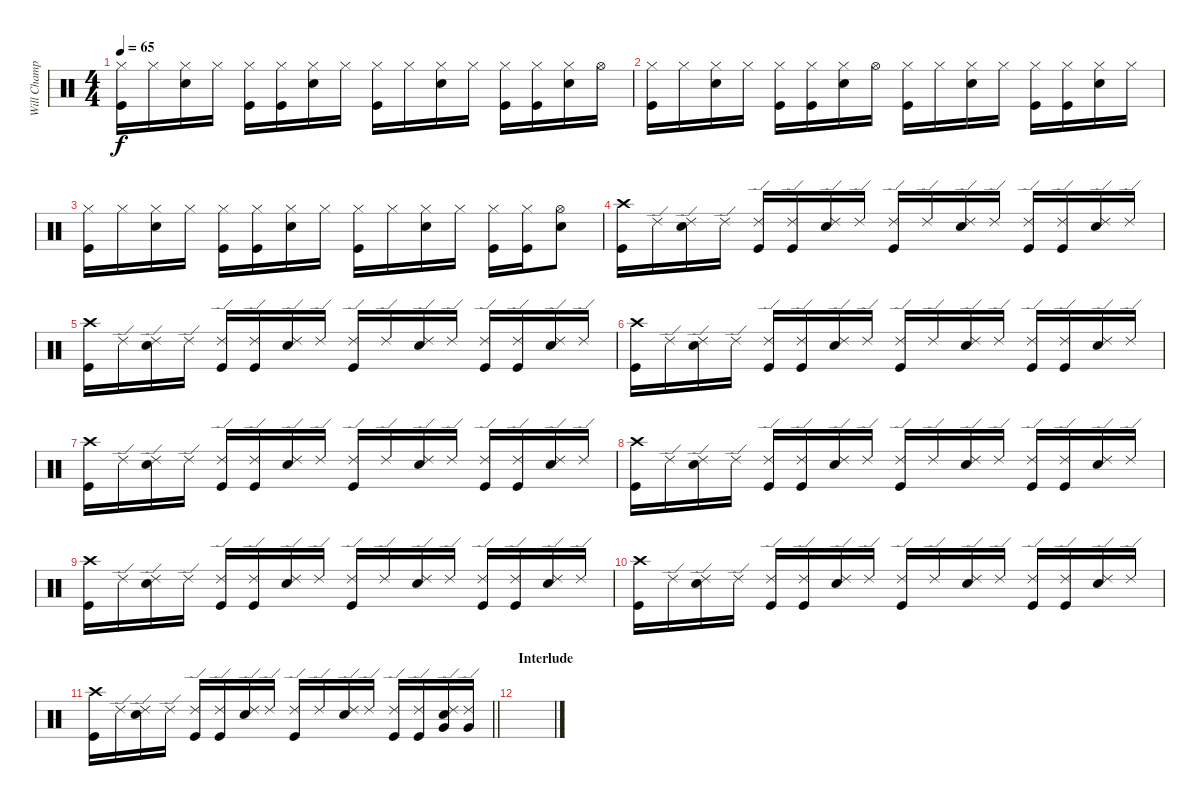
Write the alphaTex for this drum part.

\track ("Will Champion-Drums" "Will Champ") {instrument percussion}
\staff {score}
\articulation defaults
\ts (4 4)
\tempo 65
\clef neutral
\ks c
("Hi-Hat (closed)" "Kick (hit)").16{dy f} "Hi-Hat (closed)".16 ("Hi-Hat (closed)" "Snare (hit) 2").16 "Hi-Hat (closed)".16 ("Hi-Hat (closed)" "Kick (hit)").16 ("Hi-Hat (closed)" "Kick (hit)").16 ("Hi-Hat (closed)" "Snare (hit) 2").16 "Hi-Hat (closed)".16 ("Hi-Hat (closed)" "Kick (hit)").16 "Hi-Hat (closed)".16 ("Hi-Hat (closed)" "Snare (hit) 2").16 "Hi-Hat (closed)".16 ("Hi-Hat (closed)" "Kick (hit)").16 ("Hi-Hat (closed)" "Kick (hit)").16 ("Hi-Hat (closed)" "Snare (hit) 2").16 "Hi-Hat (open)".16 |
("Hi-Hat (closed)" "Kick (hit)").16 "Hi-Hat (closed)".16 ("Hi-Hat (closed)" "Snare (hit) 2").16 "Hi-Hat (closed)".16 ("Hi-Hat (closed)" "Kick (hit)").16 ("Hi-Hat (closed)" "Kick (hit)").16 ("Hi-Hat (closed)" "Snare (hit) 2").16 "Hi-Hat (open)".16 ("Hi-Hat (closed)" "Kick (hit)").16 "Hi-Hat (closed)".16 ("Hi-Hat (closed)" "Snare (hit) 2").16 "Hi-Hat (closed)".16 ("Hi-Hat (closed)" "Kick (hit)").16 ("Hi-Hat (closed)" "Kick (hit)").16 ("Hi-Hat (closed)" "Snare (hit) 2").16 "Hi-Hat (closed)".16 |
("Hi-Hat (closed)" "Kick (hit)").16 "Hi-Hat (closed)".16 ("Hi-Hat (closed)" "Snare (hit) 2").16 "Hi-Hat (closed)".16 ("Hi-Hat (closed)" "Kick (hit)").16 ("Hi-Hat (closed)" "Kick (hit)").16 ("Hi-Hat (closed)" "Snare (hit) 2").16 "Hi-Hat (closed)".16 ("Hi-Hat (closed)" "Kick (hit)").16 "Hi-Hat (closed)".16 ("Hi-Hat (closed)" "Snare (hit) 2").16 "Hi-Hat (closed)".16 ("Hi-Hat (closed)" "Kick (hit)").16 ("Hi-Hat (closed)" "Kick (hit)").16 ("Hi-Hat (open)" "Snare (hit) 2").8 |
("Crash high (hit)" "Kick (hit)").16 "Ride (edge) 2".16 ("Ride (edge) 2" "Snare (hit) 2").16 "Ride (edge) 2".16 ("Ride (edge) 2" "Kick (hit)").16 ("Ride (edge) 2" "Kick (hit)").16 ("Ride (edge) 2" "Snare (hit) 2").16 "Ride (edge) 2".16 ("Ride (edge) 2" "Kick (hit)").16 "Ride (edge) 2".16 ("Ride (edge) 2" "Snare (hit) 2").16 "Ride (edge) 2".16 ("Ride (edge) 2" "Kick (hit)").16 ("Ride (edge) 2" "Kick (hit)").16 ("Ride (edge) 2" "Snare (hit) 2").16 "Ride (edge) 2".16 |
("Crash high (hit)" "Kick (hit)").16 "Ride (edge) 2".16 ("Ride (edge) 2" "Snare (hit) 2").16 "Ride (edge) 2".16 ("Ride (edge) 2" "Kick (hit)").16 ("Ride (edge) 2" "Kick (hit)").16 ("Ride (edge) 2" "Snare (hit) 2").16 "Ride (edge) 2".16 ("Ride (edge) 2" "Kick (hit)").16 "Ride (edge) 2".16 ("Ride (edge) 2" "Snare (hit) 2").16 "Ride (edge) 2".16 ("Ride (edge) 2" "Kick (hit)").16 ("Ride (edge) 2" "Kick (hit)").16 ("Ride (edge) 2" "Snare (hit) 2").16 "Ride (edge) 2".16 |
("Crash high (hit)" "Kick (hit)").16 "Ride (edge) 2".16 ("Ride (edge) 2" "Snare (hit) 2").16 "Ride (edge) 2".16 ("Ride (edge) 2" "Kick (hit)").16 ("Ride (edge) 2" "Kick (hit)").16 ("Ride (edge) 2" "Snare (hit) 2").16 "Ride (edge) 2".16 ("Ride (edge) 2" "Kick (hit)").16 "Ride (edge) 2".16 ("Ride (edge) 2" "Snare (hit) 2").16 "Ride (edge) 2".16 ("Ride (edge) 2" "Kick (hit)").16 ("Ride (edge) 2" "Kick (hit)").16 ("Ride (edge) 2" "Snare (hit) 2").16 "Ride (edge) 2".16 |
("Crash high (hit)" "Kick (hit)").16 "Ride (edge) 2".16 ("Ride (edge) 2" "Snare (hit) 2").16 "Ride (edge) 2".16 ("Ride (edge) 2" "Kick (hit)").16 ("Ride (edge) 2" "Kick (hit)").16 ("Ride (edge) 2" "Snare (hit) 2").16 "Ride (edge) 2".16 ("Ride (edge) 2" "Kick (hit)").16 "Ride (edge) 2".16 ("Ride (edge) 2" "Snare (hit) 2").16 "Ride (edge) 2".16 ("Ride (edge) 2" "Kick (hit)").16 ("Ride (edge) 2" "Kick (hit)").16 ("Ride (edge) 2" "Snare (hit) 2").16 "Ride (edge) 2".16 |
("Crash high (hit)" "Kick (hit)").16 "Ride (edge) 2".16 ("Ride (edge) 2" "Snare (hit) 2").16 "Ride (edge) 2".16 ("Ride (edge) 2" "Kick (hit)").16 ("Ride (edge) 2" "Kick (hit)").16 ("Ride (edge) 2" "Snare (hit) 2").16 "Ride (edge) 2".16 ("Ride (edge) 2" "Kick (hit)").16 "Ride (edge) 2".16 ("Ride (edge) 2" "Snare (hit) 2").16 "Ride (edge) 2".16 ("Ride (edge) 2" "Kick (hit)").16 ("Ride (edge) 2" "Kick (hit)").16 ("Ride (edge) 2" "Snare (hit) 2").16 "Ride (edge) 2".16 |
("Crash high (hit)" "Kick (hit)").16 "Ride (edge) 2".16 ("Ride (edge) 2" "Snare (hit) 2").16 "Ride (edge) 2".16 ("Ride (edge) 2" "Kick (hit)").16 ("Ride (edge) 2" "Kick (hit)").16 ("Ride (edge) 2" "Snare (hit) 2").16 "Ride (edge) 2".16 ("Ride (edge) 2" "Kick (hit)").16 "Ride (edge) 2".16 ("Ride (edge) 2" "Snare (hit) 2").16 "Ride (edge) 2".16 ("Ride (edge) 2" "Kick (hit)").16 ("Ride (edge) 2" "Kick (hit)").16 ("Ride (edge) 2" "Snare (hit) 2").16 "Ride (edge) 2".16 |
("Crash high (hit)" "Kick (hit)").16 "Ride (edge) 2".16 ("Ride (edge) 2" "Snare (hit) 2").16 "Ride (edge) 2".16 ("Ride (edge) 2" "Kick (hit)").16 ("Ride (edge) 2" "Kick (hit)").16 ("Ride (edge) 2" "Snare (hit) 2").16 "Ride (edge) 2".16 ("Ride (edge) 2" "Kick (hit)").16 "Ride (edge) 2".16 ("Ride (edge) 2" "Snare (hit) 2").16 "Ride (edge) 2".16 ("Ride (edge) 2" "Kick (hit)").16 ("Ride (edge) 2" "Kick (hit)").16 ("Ride (edge) 2" "Snare (hit) 2").16 "Ride (edge) 2".16 |
\barLineRight lightlight
("Crash high (hit)" "Kick (hit)").16 "Ride (edge) 2".16 ("Ride (edge) 2" "Snare (hit) 2").16 "Ride (edge) 2".16 ("Ride (edge) 2" "Kick (hit)").16 ("Ride (edge) 2" "Kick (hit)").16 ("Ride (edge) 2" "Snare (hit) 2").16 "Ride (edge) 2".16 ("Ride (edge) 2" "Kick (hit)").16 "Ride (edge) 2".16 ("Ride (edge) 2" "Snare (hit) 2").16 "Ride (edge) 2".16 ("Ride (edge) 2" "Kick (hit)").16 ("Ride (edge) 2" "Kick (hit)").16 ("Ride (edge) 2" "Snare (hit) 2" "Very Low Tom (hit)").16 ("Ride (edge) 2" "Very Low Tom (hit)").16 |
\section ("" "Interlude")
